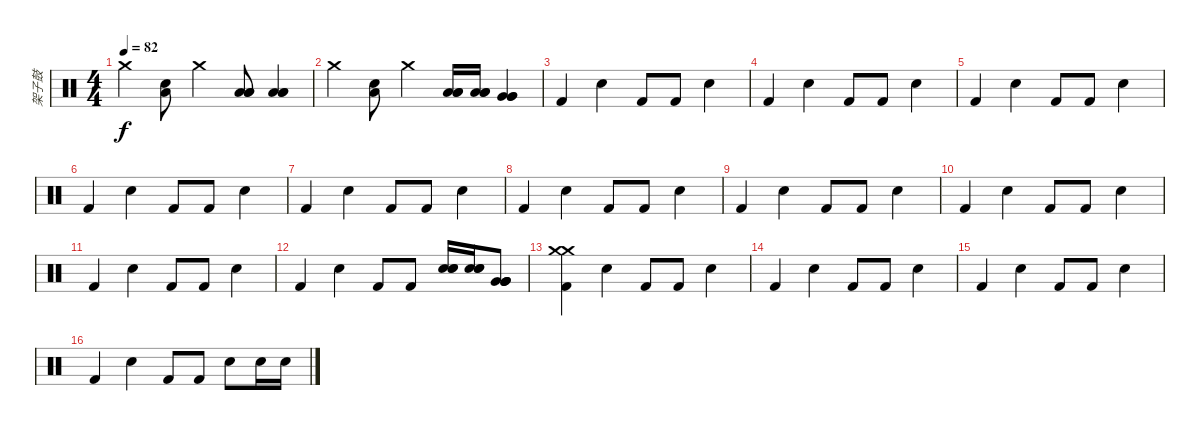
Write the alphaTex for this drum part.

\track ("架子鼓" "架子鼓") {instrument percussion}
\staff {score}
\articulation defaults
\ts (4 4)
\tempo 82
\clef neutral
\ks c "Crash medium (hit)".4{dy f}
("Low Tom (hit)" "Electric Snare (hit)").8 "Crash medium (hit)".4 ("Low Tom (hit)" "Low Tom (hit)" "Low Tom (hit)").8 ("Low Tom (hit)" "Low Tom (hit)" "Low Tom (hit)").4 |
"Crash medium (hit)".4 ("Low Tom (hit)" "Electric Snare (hit)").8 "Crash medium (hit)".4 ("Low Tom (hit)" "Low Tom (hit)" "Low Tom (hit)").16 ("Low Tom (hit)" "Low Tom (hit)" "Low Tom (hit)").16 ("Very Low Tom (hit)" "Very Low Tom (hit)" "Very Low Tom (hit)").4 |
"Kick (hit) 2".4 "Electric Snare (hit)".4 "Kick (hit) 2".8 "Kick (hit) 2".8 "Electric Snare (hit)".4 |
"Kick (hit) 2".4 "Electric Snare (hit)".4 "Kick (hit) 2".8 "Kick (hit) 2".8 "Electric Snare (hit)".4 |
"Kick (hit) 2".4 "Electric Snare (hit)".4 "Kick (hit) 2".8 "Kick (hit) 2".8 "Electric Snare (hit)".4 |
"Kick (hit) 2".4 "Electric Snare (hit)".4 "Kick (hit) 2".8 "Kick (hit) 2".8 "Electric Snare (hit)".4 |
"Kick (hit) 2".4 "Electric Snare (hit)".4 "Kick (hit) 2".8 "Kick (hit) 2".8 "Electric Snare (hit)".4 |
"Kick (hit) 2".4 "Electric Snare (hit)".4 "Kick (hit) 2".8 "Kick (hit) 2".8 "Electric Snare (hit)".4 |
"Kick (hit) 2".4 "Electric Snare (hit)".4 "Kick (hit) 2".8 "Kick (hit) 2".8 "Electric Snare (hit)".4 |
"Kick (hit) 2".4 "Electric Snare (hit)".4 "Kick (hit) 2".8 "Kick (hit) 2".8 "Electric Snare (hit)".4 |
"Kick (hit) 2".4 "Electric Snare (hit)".4 "Kick (hit) 2".8 "Kick (hit) 2".8 "Electric Snare (hit)".4 |
"Kick (hit) 2".4 "Electric Snare (hit)".4 "Kick (hit) 2".8 "Kick (hit) 2".8 ("Electric Snare (hit)" "Electric Snare (hit)" "Electric Snare (hit)").16 ("Electric Snare (hit)" "Electric Snare (hit)" "Electric Snare (hit)").16 ("Very Low Tom (hit)" "Very Low Tom (hit)" "Very Low Tom (hit)" "Very Low Tom (hit)").8 |
("Kick (hit) 2" "Crash medium (hit)" "Crash medium (hit)").4 "Electric Snare (hit)".4 "Kick (hit) 2".8 "Kick (hit) 2".8 "Electric Snare (hit)".4 |
"Kick (hit) 2".4 "Electric Snare (hit)".4 "Kick (hit) 2".8 "Kick (hit) 2".8 "Electric Snare (hit)".4 |
"Kick (hit) 2".4 "Electric Snare (hit)".4 "Kick (hit) 2".8 "Kick (hit) 2".8 "Electric Snare (hit)".4 |
"Kick (hit) 2".4 "Electric Snare (hit)".4 "Kick (hit) 2".8 "Kick (hit) 2".8 "Electric Snare (hit)".8 "Electric Snare (hit)".16 "Electric Snare (hit)".16
